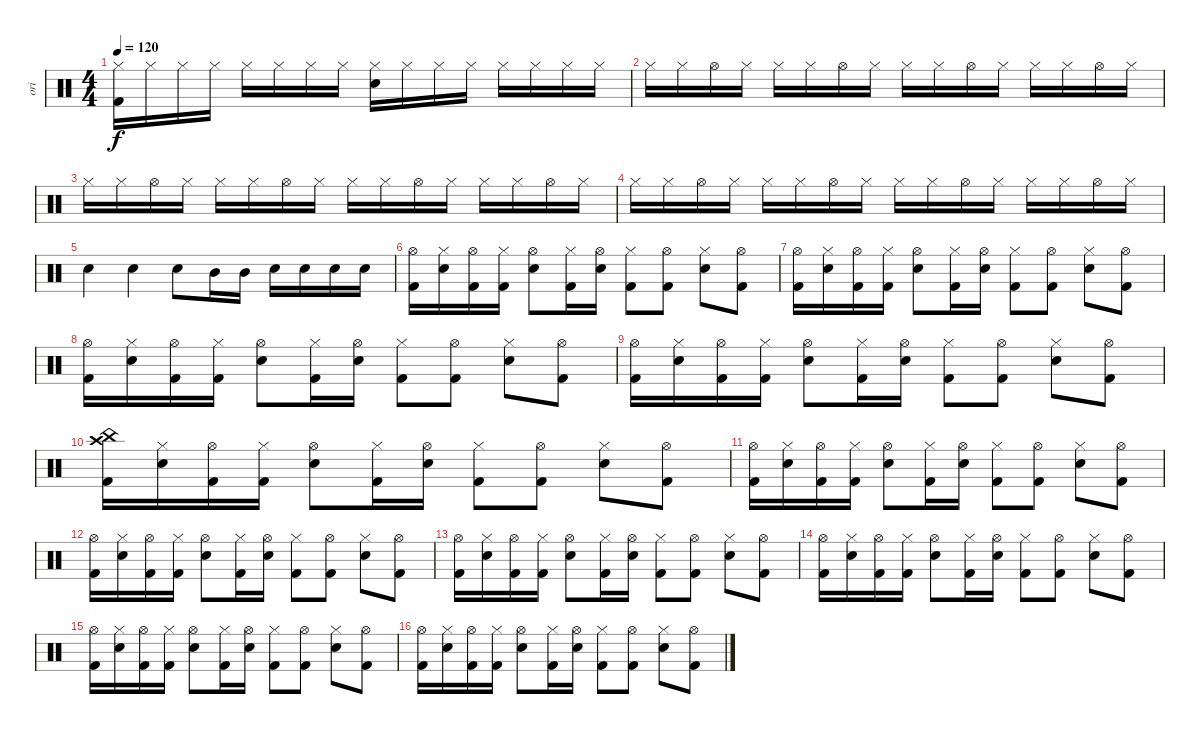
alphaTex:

\track ("ori" "ori") {instrument percussion}
\staff {score}
\articulation defaults
\ts (4 4)
\tempo 120
\clef neutral
\ks c
("Kick (hit) 2" "Hi-Hat (closed)").16{dy f} "Hi-Hat (closed)".16 "Hi-Hat (closed)".16 "Hi-Hat (closed)".16 "Hi-Hat (closed)".16 "Hi-Hat (closed)".16 "Hi-Hat (closed)".16 "Hi-Hat (closed)".16 ("Electric Snare (hit)" "Hi-Hat (closed)").16 "Hi-Hat (closed)".16 "Hi-Hat (closed)".16 "Hi-Hat (closed)".16 "Hi-Hat (closed)".16 "Hi-Hat (closed)".16 "Hi-Hat (closed)".16 "Hi-Hat (closed)".16 |
"Hi-Hat (closed)".16 "Hi-Hat (closed)".16 "Hi-Hat (open)".16 "Hi-Hat (closed)".16 "Hi-Hat (closed)".16 "Hi-Hat (closed)".16 "Hi-Hat (open)".16 "Hi-Hat (closed)".16 "Hi-Hat (closed)".16 "Hi-Hat (closed)".16 "Hi-Hat (open)".16 "Hi-Hat (closed)".16 "Hi-Hat (closed)".16 "Hi-Hat (closed)".16 "Hi-Hat (open)".16 "Hi-Hat (closed)".16 |
"Hi-Hat (closed)".16 "Hi-Hat (closed)".16 "Hi-Hat (open)".16 "Hi-Hat (closed)".16 "Hi-Hat (closed)".16 "Hi-Hat (closed)".16 "Hi-Hat (open)".16 "Hi-Hat (closed)".16 "Hi-Hat (closed)".16 "Hi-Hat (closed)".16 "Hi-Hat (open)".16 "Hi-Hat (closed)".16 "Hi-Hat (closed)".16 "Hi-Hat (closed)".16 "Hi-Hat (open)".16 "Hi-Hat (closed)".16 |
"Hi-Hat (closed)".16 "Hi-Hat (closed)".16 "Hi-Hat (open)".16 "Hi-Hat (closed)".16 "Hi-Hat (closed)".16 "Hi-Hat (closed)".16 "Hi-Hat (open)".16 "Hi-Hat (closed)".16 "Hi-Hat (closed)".16 "Hi-Hat (closed)".16 "Hi-Hat (open)".16 "Hi-Hat (closed)".16 "Hi-Hat (closed)".16 "Hi-Hat (closed)".16 "Hi-Hat (open)".16 "Hi-Hat (closed)".16 |
"Electric Snare (hit)".4 "Electric Snare (hit)".4 "Electric Snare (hit)".8 "Mid Tom (hit)".16 "Mid Tom (hit)".16 "Electric Snare (hit)".16 "Electric Snare (hit)".16 "Electric Snare (hit)".16 "Electric Snare (hit)".16 |
("Kick (hit) 2" "Hi-Hat (open)").16 ("Electric Snare (hit)" "Hi-Hat (closed)").16 ("Kick (hit) 2" "Hi-Hat (open)").16 ("Kick (hit) 2" "Hi-Hat (closed)").16 ("Electric Snare (hit)" "Hi-Hat (open)").8 ("Kick (hit) 2" "Hi-Hat (closed)").16 ("Electric Snare (hit)" "Hi-Hat (open)").16 ("Kick (hit) 2" "Hi-Hat (closed)").8 ("Kick (hit) 2" "Hi-Hat (open)").8 ("Electric Snare (hit)" "Hi-Hat (closed)").8 ("Kick (hit) 2" "Hi-Hat (open)").8 |
("Kick (hit) 2" "Hi-Hat (open)").16 ("Electric Snare (hit)" "Hi-Hat (closed)").16 ("Kick (hit) 2" "Hi-Hat (open)").16 ("Kick (hit) 2" "Hi-Hat (closed)").16 ("Electric Snare (hit)" "Hi-Hat (open)").8 ("Kick (hit) 2" "Hi-Hat (closed)").16 ("Electric Snare (hit)" "Hi-Hat (open)").16 ("Kick (hit) 2" "Hi-Hat (closed)").8 ("Kick (hit) 2" "Hi-Hat (open)").8 ("Electric Snare (hit)" "Hi-Hat (closed)").8 ("Kick (hit) 2" "Hi-Hat (open)").8 |
("Kick (hit) 2" "Hi-Hat (open)").16 ("Electric Snare (hit)" "Hi-Hat (closed)").16 ("Kick (hit) 2" "Hi-Hat (open)").16 ("Kick (hit) 2" "Hi-Hat (closed)").16 ("Electric Snare (hit)" "Hi-Hat (open)").8 ("Kick (hit) 2" "Hi-Hat (closed)").16 ("Electric Snare (hit)" "Hi-Hat (open)").16 ("Kick (hit) 2" "Hi-Hat (closed)").8 ("Kick (hit) 2" "Hi-Hat (open)").8 ("Electric Snare (hit)" "Hi-Hat (closed)").8 ("Kick (hit) 2" "Hi-Hat (open)").8 |
("Kick (hit) 2" "Hi-Hat (open)").16 ("Electric Snare (hit)" "Hi-Hat (closed)").16 ("Kick (hit) 2" "Hi-Hat (open)").16 ("Kick (hit) 2" "Hi-Hat (closed)").16 ("Electric Snare (hit)" "Hi-Hat (open)").8 ("Kick (hit) 2" "Hi-Hat (closed)").16 ("Electric Snare (hit)" "Hi-Hat (open)").16 ("Kick (hit) 2" "Hi-Hat (closed)").8 ("Kick (hit) 2" "Hi-Hat (open)").8 ("Electric Snare (hit)" "Hi-Hat (closed)").8 ("Kick (hit) 2" "Hi-Hat (open)").8 |
("Kick (hit) 2" "Crash high (hit)" "China (hit)").16 ("Electric Snare (hit)" "Hi-Hat (closed)").16 ("Kick (hit) 2" "Hi-Hat (open)").16 ("Kick (hit) 2" "Hi-Hat (closed)").16 ("Electric Snare (hit)" "Hi-Hat (open)").8 ("Kick (hit) 2" "Hi-Hat (closed)").16 ("Electric Snare (hit)" "Hi-Hat (open)").16 ("Kick (hit) 2" "Hi-Hat (closed)").8 ("Kick (hit) 2" "Hi-Hat (open)").8 ("Electric Snare (hit)" "Hi-Hat (closed)").8 ("Kick (hit) 2" "Hi-Hat (open)").8 |
("Kick (hit) 2" "Hi-Hat (open)").16 ("Electric Snare (hit)" "Hi-Hat (closed)").16 ("Kick (hit) 2" "Hi-Hat (open)").16 ("Kick (hit) 2" "Hi-Hat (closed)").16 ("Electric Snare (hit)" "Hi-Hat (open)").8 ("Kick (hit) 2" "Hi-Hat (closed)").16 ("Electric Snare (hit)" "Hi-Hat (open)").16 ("Kick (hit) 2" "Hi-Hat (closed)").8 ("Kick (hit) 2" "Hi-Hat (open)").8 ("Electric Snare (hit)" "Hi-Hat (closed)").8 ("Kick (hit) 2" "Hi-Hat (open)").8 |
("Kick (hit) 2" "Hi-Hat (open)").16 ("Electric Snare (hit)" "Hi-Hat (closed)").16 ("Kick (hit) 2" "Hi-Hat (open)").16 ("Kick (hit) 2" "Hi-Hat (closed)").16 ("Electric Snare (hit)" "Hi-Hat (open)").8 ("Kick (hit) 2" "Hi-Hat (closed)").16 ("Electric Snare (hit)" "Hi-Hat (open)").16 ("Kick (hit) 2" "Hi-Hat (closed)").8 ("Kick (hit) 2" "Hi-Hat (open)").8 ("Electric Snare (hit)" "Hi-Hat (closed)").8 ("Kick (hit) 2" "Hi-Hat (open)").8 |
("Kick (hit) 2" "Hi-Hat (open)").16 ("Electric Snare (hit)" "Hi-Hat (closed)").16 ("Kick (hit) 2" "Hi-Hat (open)").16 ("Kick (hit) 2" "Hi-Hat (closed)").16 ("Electric Snare (hit)" "Hi-Hat (open)").8 ("Kick (hit) 2" "Hi-Hat (closed)").16 ("Electric Snare (hit)" "Hi-Hat (open)").16 ("Kick (hit) 2" "Hi-Hat (closed)").8 ("Kick (hit) 2" "Hi-Hat (open)").8 ("Electric Snare (hit)" "Hi-Hat (closed)").8 ("Kick (hit) 2" "Hi-Hat (open)").8 |
("Kick (hit) 2" "Hi-Hat (open)").16 ("Electric Snare (hit)" "Hi-Hat (closed)").16 ("Kick (hit) 2" "Hi-Hat (open)").16 ("Kick (hit) 2" "Hi-Hat (closed)").16 ("Electric Snare (hit)" "Hi-Hat (open)").8 ("Kick (hit) 2" "Hi-Hat (closed)").16 ("Electric Snare (hit)" "Hi-Hat (open)").16 ("Kick (hit) 2" "Hi-Hat (closed)").8 ("Kick (hit) 2" "Hi-Hat (open)").8 ("Electric Snare (hit)" "Hi-Hat (closed)").8 ("Kick (hit) 2" "Hi-Hat (open)").8 |
("Kick (hit) 2" "Hi-Hat (open)").16 ("Electric Snare (hit)" "Hi-Hat (closed)").16 ("Kick (hit) 2" "Hi-Hat (open)").16 ("Kick (hit) 2" "Hi-Hat (closed)").16 ("Electric Snare (hit)" "Hi-Hat (open)").8 ("Kick (hit) 2" "Hi-Hat (closed)").16 ("Electric Snare (hit)" "Hi-Hat (open)").16 ("Kick (hit) 2" "Hi-Hat (closed)").8 ("Kick (hit) 2" "Hi-Hat (open)").8 ("Electric Snare (hit)" "Hi-Hat (closed)").8 ("Kick (hit) 2" "Hi-Hat (open)").8 |
("Kick (hit) 2" "Hi-Hat (open)").16 ("Electric Snare (hit)" "Hi-Hat (closed)").16 ("Kick (hit) 2" "Hi-Hat (open)").16 ("Kick (hit) 2" "Hi-Hat (closed)").16 ("Electric Snare (hit)" "Hi-Hat (open)").8 ("Kick (hit) 2" "Hi-Hat (closed)").16 ("Electric Snare (hit)" "Hi-Hat (open)").16 ("Kick (hit) 2" "Hi-Hat (closed)").8 ("Kick (hit) 2" "Hi-Hat (open)").8 ("Electric Snare (hit)" "Hi-Hat (closed)").8 ("Kick (hit) 2" "Hi-Hat (open)").8
